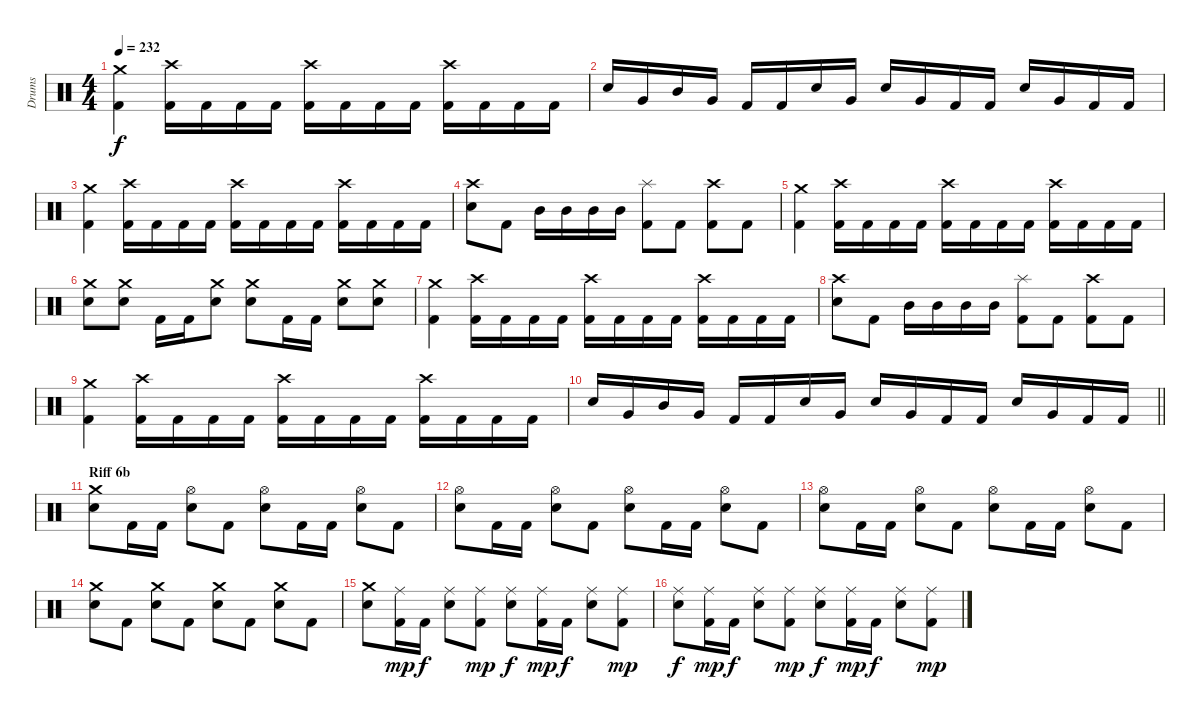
\track ("Drums" "Drums") {instrument percussion}
\staff {score}
\articulation defaults
\ts (4 4)
\tempo 232
\clef neutral
\ks c
("Crash medium (hit)" "Kick (hit) 2").4{dy f} ("Crash high (hit)" "Kick (hit) 2").16 "Kick (hit) 2".16 "Kick (hit) 2".16 "Kick (hit) 2".16 ("Crash high (hit)" "Kick (hit) 2").16 "Kick (hit) 2".16 "Kick (hit) 2".16 "Kick (hit) 2".16 ("Crash high (hit)" "Kick (hit) 2").16 "Kick (hit) 2".16 "Kick (hit) 2".16 "Kick (hit) 2".16 |
"Electric Snare (hit)".16 "Very Low Tom (hit)".16 "Mid Tom (hit)".16 "Very Low Tom (hit)".16 "Kick (hit) 2".16 "Kick (hit) 2".16 "Electric Snare (hit)".16 "Very Low Tom (hit)".16 "Electric Snare (hit)".16 "Very Low Tom (hit)".16 "Kick (hit) 2".16 "Kick (hit) 2".16 "Electric Snare (hit)".16 "Very Low Tom (hit)".16 "Kick (hit) 2".16 "Kick (hit) 2".16 |
("Crash medium (hit)" "Kick (hit) 2").4 ("Crash high (hit)" "Kick (hit) 2").16 "Kick (hit) 2".16 "Kick (hit) 2".16 "Kick (hit) 2".16 ("Crash high (hit)" "Kick (hit) 2").16 "Kick (hit) 2".16 "Kick (hit) 2".16 "Kick (hit) 2".16 ("Crash high (hit)" "Kick (hit) 2").16 "Kick (hit) 2".16 "Kick (hit) 2".16 "Kick (hit) 2".16 |
("Electric Snare (hit)" "Crash high (hit)").8 "Kick (hit) 2".8 "Mid Tom (hit)".16 "Mid Tom (hit)".16 "Mid Tom (hit)".16 "Mid Tom (hit)".16 ("Splash (hit)" "Kick (hit) 2").8 "Kick (hit) 2".8 ("Crash high (hit)" "Kick (hit) 2").8 "Kick (hit) 2".8 |
("Crash medium (hit)" "Kick (hit) 2").4 ("Crash high (hit)" "Kick (hit) 2").16 "Kick (hit) 2".16 "Kick (hit) 2".16 "Kick (hit) 2".16 ("Crash high (hit)" "Kick (hit) 2").16 "Kick (hit) 2".16 "Kick (hit) 2".16 "Kick (hit) 2".16 ("Crash high (hit)" "Kick (hit) 2").16 "Kick (hit) 2".16 "Kick (hit) 2".16 "Kick (hit) 2".16 |
("Crash medium (hit)" "Electric Snare (hit)").8 ("Crash medium (hit)" "Electric Snare (hit)").8 "Kick (hit) 2".16 "Kick (hit) 2".16 ("Crash medium (hit)" "Electric Snare (hit)").8 ("Crash medium (hit)" "Electric Snare (hit)").8 "Kick (hit) 2".16 "Kick (hit) 2".16 ("Crash medium (hit)" "Electric Snare (hit)").8 ("Crash medium (hit)" "Electric Snare (hit)").8 |
("Crash medium (hit)" "Kick (hit) 2").4 ("Crash high (hit)" "Kick (hit) 2").16 "Kick (hit) 2".16 "Kick (hit) 2".16 "Kick (hit) 2".16 ("Crash high (hit)" "Kick (hit) 2").16 "Kick (hit) 2".16 "Kick (hit) 2".16 "Kick (hit) 2".16 ("Crash high (hit)" "Kick (hit) 2").16 "Kick (hit) 2".16 "Kick (hit) 2".16 "Kick (hit) 2".16 |
("Electric Snare (hit)" "Crash high (hit)").8 "Kick (hit) 2".8 "Mid Tom (hit)".16 "Mid Tom (hit)".16 "Mid Tom (hit)".16 "Mid Tom (hit)".16 ("Splash (hit)" "Kick (hit) 2").8 "Kick (hit) 2".8 ("Crash high (hit)" "Kick (hit) 2").8 "Kick (hit) 2".8 |
("Crash medium (hit)" "Kick (hit) 2").4 ("Crash high (hit)" "Kick (hit) 2").16 "Kick (hit) 2".16 "Kick (hit) 2".16 "Kick (hit) 2".16 ("Crash high (hit)" "Kick (hit) 2").16 "Kick (hit) 2".16 "Kick (hit) 2".16 "Kick (hit) 2".16 ("Crash high (hit)" "Kick (hit) 2").16 "Kick (hit) 2".16 "Kick (hit) 2".16 "Kick (hit) 2".16 |
\barLineRight lightlight "Electric Snare (hit)".16 "Very Low Tom (hit)".16 "Mid Tom (hit)".16 "Very Low Tom (hit)".16 "Kick (hit) 2".16 "Kick (hit) 2".16 "Electric Snare (hit)".16 "Very Low Tom (hit)".16 "Electric Snare (hit)".16 "Very Low Tom (hit)".16 "Kick (hit) 2".16 "Kick (hit) 2".16 "Electric Snare (hit)".16 "Very Low Tom (hit)".16 "Kick (hit) 2".16 "Kick (hit) 2".16
|
\section ("" "Riff 6b")
("Electric Snare (hit)" "Crash medium (hit)").8 "Kick (hit) 2".16 "Kick (hit) 2".16 ("Electric Snare (hit)" "Hi-Hat (open)").8 "Kick (hit) 2".8 ("Electric Snare (hit)" "Hi-Hat (open)").8 "Kick (hit) 2".16 "Kick (hit) 2".16 ("Electric Snare (hit)" "Hi-Hat (open)").8 "Kick (hit) 2".8 |
("Electric Snare (hit)" "Hi-Hat (open)").8 "Kick (hit) 2".16 "Kick (hit) 2".16 ("Electric Snare (hit)" "Hi-Hat (open)").8 "Kick (hit) 2".8 ("Electric Snare (hit)" "Hi-Hat (open)").8 "Kick (hit) 2".16 "Kick (hit) 2".16 ("Electric Snare (hit)" "Hi-Hat (open)").8 "Kick (hit) 2".8 |
("Electric Snare (hit)" "Hi-Hat (open)").8 "Kick (hit) 2".16 "Kick (hit) 2".16 ("Electric Snare (hit)" "Hi-Hat (open)").8 "Kick (hit) 2".8 ("Electric Snare (hit)" "Hi-Hat (open)").8 "Kick (hit) 2".16 "Kick (hit) 2".16 ("Electric Snare (hit)" "Hi-Hat (open)").8 "Kick (hit) 2".8 |
("Crash medium (hit)" "Electric Snare (hit)").8 "Kick (hit) 2".8 ("Crash medium (hit)" "Electric Snare (hit)").8 "Kick (hit) 2".8 ("Crash medium (hit)" "Electric Snare (hit)").8 "Kick (hit) 2".8 ("Crash medium (hit)" "Electric Snare (hit)").8 "Kick (hit) 2".8 |
("Electric Snare (hit)" "Crash medium (hit)").8 ("Kick (hit) 2" "Ride (middle)").16{dy mp} "Kick (hit) 2".16{dy f} ("Electric Snare (hit)" "Ride (middle)").8 ("Kick (hit) 2" "Ride (middle)").8{dy mp} ("Electric Snare (hit)" "Ride (middle)").8{dy f} ("Kick (hit) 2" "Ride (middle)").16{dy mp} "Kick (hit) 2".16{dy f} ("Electric Snare (hit)" "Ride (middle)").8 ("Kick (hit) 2" "Ride (middle)").8{dy mp} |
("Electric Snare (hit)" "Ride (middle)").8{dy f} ("Kick (hit) 2" "Ride (middle)").16{dy mp} "Kick (hit) 2".16{dy f} ("Electric Snare (hit)" "Ride (middle)").8 ("Kick (hit) 2" "Ride (middle)").8{dy mp} ("Electric Snare (hit)" "Ride (middle)").8{dy f} ("Kick (hit) 2" "Ride (middle)").16{dy mp} "Kick (hit) 2".16{dy f} ("Electric Snare (hit)" "Ride (middle)").8 ("Kick (hit) 2" "Ride (middle)").8{dy mp}
